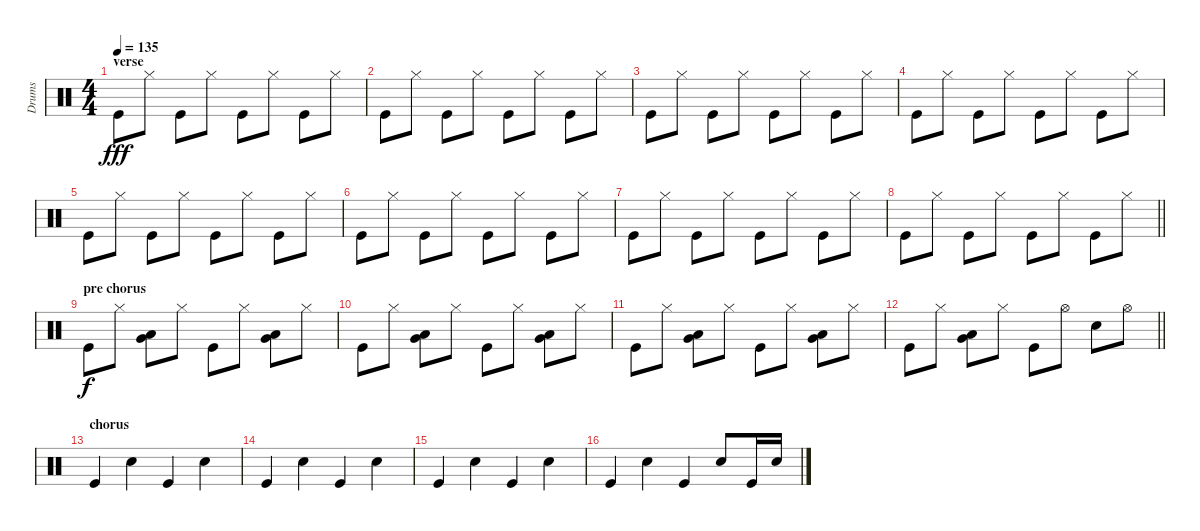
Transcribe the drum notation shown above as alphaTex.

\track ("Drums" "Drums") {instrument percussion}
\staff {score}
\articulation defaults
\ts (4 4)
\section ("" "verse")
\tempo 135
\clef neutral
\ks c "Kick (hit)".8{dy fff} "Hi-Hat (closed)".8 "Kick (hit)".8 "Hi-Hat (closed)".8 "Kick (hit)".8 "Hi-Hat (closed)".8 "Kick (hit)".8 "Hi-Hat (closed)".8
|
"Kick (hit)".8 "Hi-Hat (closed)".8 "Kick (hit)".8 "Hi-Hat (closed)".8 "Kick (hit)".8 "Hi-Hat (closed)".8 "Kick (hit)".8 "Hi-Hat (closed)".8 |
"Kick (hit)".8 "Hi-Hat (closed)".8 "Kick (hit)".8 "Hi-Hat (closed)".8 "Kick (hit)".8 "Hi-Hat (closed)".8 "Kick (hit)".8 "Hi-Hat (closed)".8 |
"Kick (hit)".8 "Hi-Hat (closed)".8 "Kick (hit)".8 "Hi-Hat (closed)".8 "Kick (hit)".8 "Hi-Hat (closed)".8 "Kick (hit)".8 "Hi-Hat (closed)".8 |
"Kick (hit)".8 "Hi-Hat (closed)".8 "Kick (hit)".8 "Hi-Hat (closed)".8 "Kick (hit)".8 "Hi-Hat (closed)".8 "Kick (hit)".8 "Hi-Hat (closed)".8 |
"Kick (hit)".8 "Hi-Hat (closed)".8 "Kick (hit)".8 "Hi-Hat (closed)".8 "Kick (hit)".8 "Hi-Hat (closed)".8 "Kick (hit)".8 "Hi-Hat (closed)".8 |
"Kick (hit)".8 "Hi-Hat (closed)".8 "Kick (hit)".8 "Hi-Hat (closed)".8 "Kick (hit)".8 "Hi-Hat (closed)".8 "Kick (hit)".8 "Hi-Hat (closed)".8 |
\barLineRight lightlight "Kick (hit)".8 "Hi-Hat (closed)".8 "Kick (hit)".8 "Hi-Hat (closed)".8 "Kick (hit)".8 "Hi-Hat (closed)".8 "Kick (hit)".8 "Hi-Hat (closed)".8
|
\section ("" "pre chorus")
"Kick (hit)".8{dy f} "Hi-Hat (closed)".8 ("Low Tom (hit)" "Very Low Tom (hit)").8 "Hi-Hat (closed)".8 "Kick (hit)".8 "Hi-Hat (closed)".8 ("Low Tom (hit)" "Very Low Tom (hit)").8 "Hi-Hat (closed)".8 |
"Kick (hit)".8 "Hi-Hat (closed)".8 ("Low Tom (hit)" "Very Low Tom (hit)").8 "Hi-Hat (closed)".8 "Kick (hit)".8 "Hi-Hat (closed)".8 ("Low Tom (hit)" "Very Low Tom (hit)").8 "Hi-Hat (closed)".8 |
"Kick (hit)".8 "Hi-Hat (closed)".8 ("Low Tom (hit)" "Very Low Tom (hit)").8 "Hi-Hat (closed)".8 "Kick (hit)".8 "Hi-Hat (closed)".8 ("Low Tom (hit)" "Very Low Tom (hit)").8 "Hi-Hat (closed)".8 |
\barLineRight lightlight "Kick (hit)".8 "Hi-Hat (closed)".8
("Low Tom (hit)" "Very Low Tom (hit)").8 "Hi-Hat (closed)".8 "Kick (hit)".8 "Hi-Hat (open)".8 "Electric Snare (hit)".8 "Hi-Hat (open)".8 |
\section ("" "chorus")
"Kick (hit)".4 "Electric Snare (hit)".4 "Kick (hit)".4 "Electric Snare (hit)".4 |
"Kick (hit)".4 "Electric Snare (hit)".4 "Kick (hit)".4 "Electric Snare (hit)".4 |
"Kick (hit)".4 "Electric Snare (hit)".4 "Kick (hit)".4 "Electric Snare (hit)".4 |
"Kick (hit)".4 "Electric Snare (hit)".4 "Kick (hit)".4 "Electric Snare (hit)".8 "Kick (hit)".16 "Electric Snare (hit)".16
